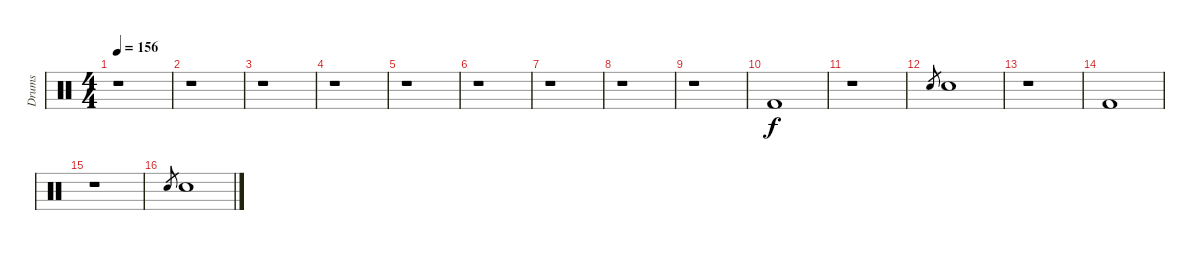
\track ("Drums" "Drums") {instrument percussion}
\staff {score}
\articulation defaults
\ts (4 4)
\tempo 156
\clef neutral
\ks c
r.1{dy f} |
\section ("" "")
r.1 |
r.1 |
r.1 |
r.1 |
r.1 |
r.1 |
r.1 |
r.1 |
\section ("" "")
"Kick (hit) 2".1 |
r.1 |
"Snare (hit) 2".8{gr} "Snare (hit) 2".1 |
r.1 |
"Kick (hit) 2".1 |
r.1 |
"Snare (hit) 2".8{gr} "Snare (hit) 2".1
